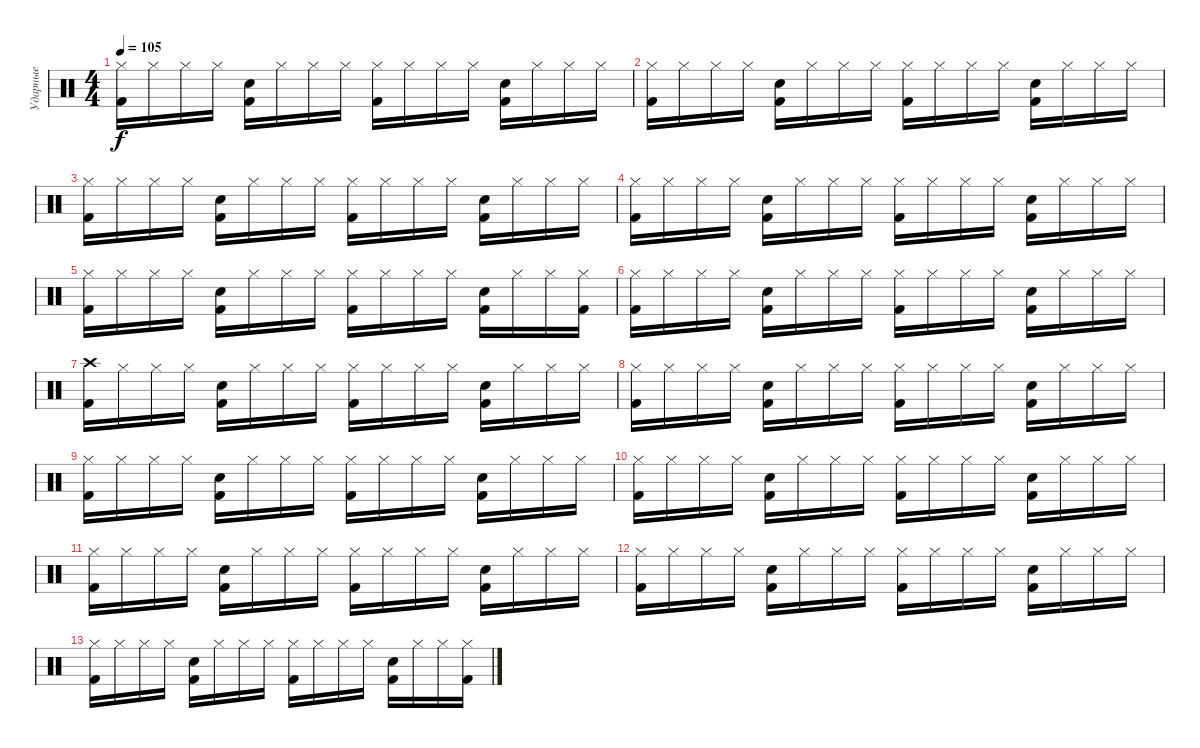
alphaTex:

\track ("Ударные" "Ударные") {instrument percussion}
\staff {score}
\articulation defaults
\ts (4 4)
\tempo 105
\clef neutral
\ks c
("Hi-Hat (closed)" "Kick (hit) 2").16{dy f} "Hi-Hat (closed)".16 "Hi-Hat (closed)".16 "Hi-Hat (closed)".16 ("Kick (hit) 2" "Electric Snare (hit)").16 "Hi-Hat (closed)".16 "Hi-Hat (closed)".16 "Hi-Hat (closed)".16 ("Hi-Hat (closed)" "Kick (hit) 2").16 "Hi-Hat (closed)".16 "Hi-Hat (closed)".16 "Hi-Hat (closed)".16 ("Kick (hit) 2" "Electric Snare (hit)").16 "Hi-Hat (closed)".16 "Hi-Hat (closed)".16 "Hi-Hat (closed)".16 |
("Hi-Hat (closed)" "Kick (hit) 2").16 "Hi-Hat (closed)".16 "Hi-Hat (closed)".16 "Hi-Hat (closed)".16 ("Kick (hit) 2" "Electric Snare (hit)").16 "Hi-Hat (closed)".16 "Hi-Hat (closed)".16 "Hi-Hat (closed)".16 ("Hi-Hat (closed)" "Kick (hit) 2").16 "Hi-Hat (closed)".16 "Hi-Hat (closed)".16 "Hi-Hat (closed)".16 ("Kick (hit) 2" "Electric Snare (hit)").16 "Hi-Hat (closed)".16 "Hi-Hat (closed)".16 "Hi-Hat (closed)".16 |
("Hi-Hat (closed)" "Kick (hit) 2").16 "Hi-Hat (closed)".16 "Hi-Hat (closed)".16 "Hi-Hat (closed)".16 ("Kick (hit) 2" "Electric Snare (hit)").16 "Hi-Hat (closed)".16 "Hi-Hat (closed)".16 "Hi-Hat (closed)".16 ("Hi-Hat (closed)" "Kick (hit) 2").16 "Hi-Hat (closed)".16 "Hi-Hat (closed)".16 "Hi-Hat (closed)".16 ("Kick (hit) 2" "Electric Snare (hit)").16 "Hi-Hat (closed)".16 "Hi-Hat (closed)".16 "Hi-Hat (closed)".16 |
("Hi-Hat (closed)" "Kick (hit) 2").16 "Hi-Hat (closed)".16 "Hi-Hat (closed)".16 "Hi-Hat (closed)".16 ("Kick (hit) 2" "Electric Snare (hit)").16 "Hi-Hat (closed)".16 "Hi-Hat (closed)".16 "Hi-Hat (closed)".16 ("Hi-Hat (closed)" "Kick (hit) 2").16 "Hi-Hat (closed)".16 "Hi-Hat (closed)".16 "Hi-Hat (closed)".16 ("Kick (hit) 2" "Electric Snare (hit)").16 "Hi-Hat (closed)".16 "Hi-Hat (closed)".16 "Hi-Hat (closed)".16 |
("Hi-Hat (closed)" "Kick (hit) 2").16 "Hi-Hat (closed)".16 "Hi-Hat (closed)".16 "Hi-Hat (closed)".16 ("Kick (hit) 2" "Electric Snare (hit)").16 "Hi-Hat (closed)".16 "Hi-Hat (closed)".16 "Hi-Hat (closed)".16 ("Hi-Hat (closed)" "Kick (hit) 2").16 "Hi-Hat (closed)".16 "Hi-Hat (closed)".16 "Hi-Hat (closed)".16 ("Kick (hit) 2" "Electric Snare (hit)").16 "Hi-Hat (closed)".16 "Hi-Hat (closed)".16 ("Hi-Hat (closed)" "Kick (hit) 2").16 |
("Hi-Hat (closed)" "Kick (hit) 2").16 "Hi-Hat (closed)".16 "Hi-Hat (closed)".16 "Hi-Hat (closed)".16 ("Kick (hit) 2" "Electric Snare (hit)").16 "Hi-Hat (closed)".16 "Hi-Hat (closed)".16 "Hi-Hat (closed)".16 ("Hi-Hat (closed)" "Kick (hit) 2").16 "Hi-Hat (closed)".16 "Hi-Hat (closed)".16 "Hi-Hat (closed)".16 ("Kick (hit) 2" "Electric Snare (hit)").16 "Hi-Hat (closed)".16 "Hi-Hat (closed)".16 "Hi-Hat (closed)".16 |
("Crash high (hit)" "Kick (hit) 2").16 "Hi-Hat (closed)".16 "Hi-Hat (closed)".16 "Hi-Hat (closed)".16 ("Kick (hit) 2" "Electric Snare (hit)").16 "Hi-Hat (closed)".16 "Hi-Hat (closed)".16 "Hi-Hat (closed)".16 ("Hi-Hat (closed)" "Kick (hit) 2").16 "Hi-Hat (closed)".16 "Hi-Hat (closed)".16 "Hi-Hat (closed)".16 ("Kick (hit) 2" "Electric Snare (hit)").16 "Hi-Hat (closed)".16 "Hi-Hat (closed)".16 "Hi-Hat (closed)".16 |
("Hi-Hat (closed)" "Kick (hit) 2").16 "Hi-Hat (closed)".16 "Hi-Hat (closed)".16 "Hi-Hat (closed)".16 ("Kick (hit) 2" "Electric Snare (hit)").16 "Hi-Hat (closed)".16 "Hi-Hat (closed)".16 "Hi-Hat (closed)".16 ("Hi-Hat (closed)" "Kick (hit) 2").16 "Hi-Hat (closed)".16 "Hi-Hat (closed)".16 "Hi-Hat (closed)".16 ("Kick (hit) 2" "Electric Snare (hit)").16 "Hi-Hat (closed)".16 "Hi-Hat (closed)".16 "Hi-Hat (closed)".16 |
("Hi-Hat (closed)" "Kick (hit) 2").16 "Hi-Hat (closed)".16 "Hi-Hat (closed)".16 "Hi-Hat (closed)".16 ("Kick (hit) 2" "Electric Snare (hit)").16 "Hi-Hat (closed)".16 "Hi-Hat (closed)".16 "Hi-Hat (closed)".16 ("Hi-Hat (closed)" "Kick (hit) 2").16 "Hi-Hat (closed)".16 "Hi-Hat (closed)".16 "Hi-Hat (closed)".16 ("Kick (hit) 2" "Electric Snare (hit)").16 "Hi-Hat (closed)".16 "Hi-Hat (closed)".16 "Hi-Hat (closed)".16 |
("Hi-Hat (closed)" "Kick (hit) 2").16 "Hi-Hat (closed)".16 "Hi-Hat (closed)".16 "Hi-Hat (closed)".16 ("Kick (hit) 2" "Electric Snare (hit)").16 "Hi-Hat (closed)".16 "Hi-Hat (closed)".16 "Hi-Hat (closed)".16 ("Hi-Hat (closed)" "Kick (hit) 2").16 "Hi-Hat (closed)".16 "Hi-Hat (closed)".16 "Hi-Hat (closed)".16 ("Kick (hit) 2" "Electric Snare (hit)").16 "Hi-Hat (closed)".16 "Hi-Hat (closed)".16 "Hi-Hat (closed)".16 |
("Hi-Hat (closed)" "Kick (hit) 2").16 "Hi-Hat (closed)".16 "Hi-Hat (closed)".16 "Hi-Hat (closed)".16 ("Kick (hit) 2" "Electric Snare (hit)").16 "Hi-Hat (closed)".16 "Hi-Hat (closed)".16 "Hi-Hat (closed)".16 ("Hi-Hat (closed)" "Kick (hit) 2").16 "Hi-Hat (closed)".16 "Hi-Hat (closed)".16 "Hi-Hat (closed)".16 ("Kick (hit) 2" "Electric Snare (hit)").16 "Hi-Hat (closed)".16 "Hi-Hat (closed)".16 "Hi-Hat (closed)".16 |
("Hi-Hat (closed)" "Kick (hit) 2").16 "Hi-Hat (closed)".16 "Hi-Hat (closed)".16 "Hi-Hat (closed)".16 ("Kick (hit) 2" "Electric Snare (hit)").16 "Hi-Hat (closed)".16 "Hi-Hat (closed)".16 "Hi-Hat (closed)".16 ("Hi-Hat (closed)" "Kick (hit) 2").16 "Hi-Hat (closed)".16 "Hi-Hat (closed)".16 "Hi-Hat (closed)".16 ("Kick (hit) 2" "Electric Snare (hit)").16 "Hi-Hat (closed)".16 "Hi-Hat (closed)".16 "Hi-Hat (closed)".16 |
("Hi-Hat (closed)" "Kick (hit) 2").16 "Hi-Hat (closed)".16 "Hi-Hat (closed)".16 "Hi-Hat (closed)".16 ("Kick (hit) 2" "Electric Snare (hit)").16 "Hi-Hat (closed)".16 "Hi-Hat (closed)".16 "Hi-Hat (closed)".16 ("Hi-Hat (closed)" "Kick (hit) 2").16 "Hi-Hat (closed)".16 "Hi-Hat (closed)".16 "Hi-Hat (closed)".16 ("Kick (hit) 2" "Electric Snare (hit)").16 "Hi-Hat (closed)".16 "Hi-Hat (closed)".16 ("Hi-Hat (closed)" "Kick (hit) 2").16
